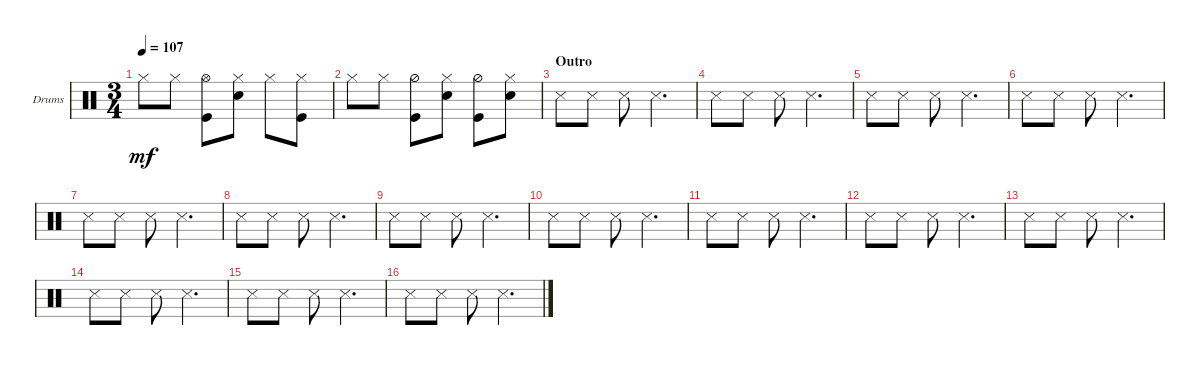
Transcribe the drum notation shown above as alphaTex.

\defaultSystemsLayout 4
\bracketExtendMode groupsimilarinstruments
\firstSystemTrackNameOrientation horizontal
\otherSystemsTrackNameOrientation horizontal
\track ("Drums" "Drums") {instrument percussion}
\staff {score}
\articulation defaults
\ts (3 4)
\tempo 107
\clef neutral
\ks c "Hi-Hat (closed)".8{dy mf} "Hi-Hat (closed)".8
("Hi-Hat (open)" "Kick (hit)").8 ("Snare (hit) 2" "Hi-Hat (closed)").8 "Hi-Hat (closed)".8 ("Kick (hit)" "Hi-Hat (closed)").8 |
"Hi-Hat (closed)".8 "Hi-Hat (closed)".8 ("Hi-Hat (half)" "Kick (hit)").8 ("Hi-Hat (closed)" "Snare (hit) 2").8 ("Hi-Hat (half)" "Kick (hit)").8 ("Hi-Hat (closed)" "Snare (hit) 2").8 |
\section ("" "Outro")
"Snare (side stick) 3".8 "Snare (side stick) 3".8 "Snare (side stick) 3".8 "Snare (side stick) 3".4{d} |
"Snare (side stick) 3".8 "Snare (side stick) 3".8 "Snare (side stick) 3".8 "Snare (side stick) 3".4{d} |
"Snare (side stick) 3".8 "Snare (side stick) 3".8 "Snare (side stick) 3".8 "Snare (side stick) 3".4{d} |
"Snare (side stick) 3".8 "Snare (side stick) 3".8 "Snare (side stick) 3".8 "Snare (side stick) 3".4{d} |
"Snare (side stick) 3".8 "Snare (side stick) 3".8 "Snare (side stick) 3".8 "Snare (side stick) 3".4{d} |
"Snare (side stick) 3".8 "Snare (side stick) 3".8 "Snare (side stick) 3".8 "Snare (side stick) 3".4{d} |
"Snare (side stick) 3".8 "Snare (side stick) 3".8 "Snare (side stick) 3".8 "Snare (side stick) 3".4{d} |
"Snare (side stick) 3".8 "Snare (side stick) 3".8 "Snare (side stick) 3".8 "Snare (side stick) 3".4{d} |
"Snare (side stick) 3".8 "Snare (side stick) 3".8 "Snare (side stick) 3".8 "Snare (side stick) 3".4{d} |
"Snare (side stick) 3".8 "Snare (side stick) 3".8 "Snare (side stick) 3".8 "Snare (side stick) 3".4{d} |
"Snare (side stick) 3".8 "Snare (side stick) 3".8 "Snare (side stick) 3".8 "Snare (side stick) 3".4{d} |
"Snare (side stick) 3".8 "Snare (side stick) 3".8 "Snare (side stick) 3".8 "Snare (side stick) 3".4{d} |
"Snare (side stick) 3".8 "Snare (side stick) 3".8 "Snare (side stick) 3".8 "Snare (side stick) 3".4{d} |
"Snare (side stick) 3".8 "Snare (side stick) 3".8 "Snare (side stick) 3".8 "Snare (side stick) 3".4{d}
